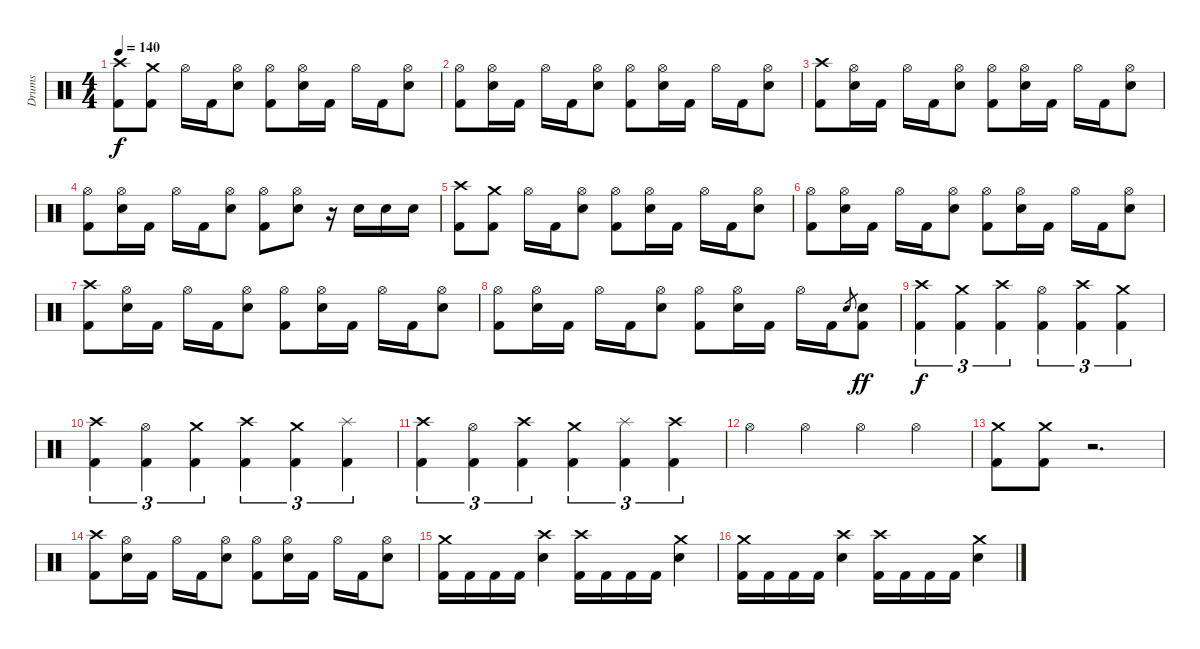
\track ("Drums" "Drums") {instrument percussion}
\staff {score}
\articulation defaults
\ts (4 4)
\tempo 140
\clef neutral
\ks c
("Kick (hit) 2" "Crash high (hit)").8{dy f} ("Kick (hit) 2" "Crash medium (hit)").8 "Hi-Hat (open)".16 "Kick (hit) 2".16 ("Snare (hit) 2" "Hi-Hat (open)").8 ("Kick (hit) 2" "Hi-Hat (open)").8 ("Hi-Hat (open)" "Snare (hit) 2").16 "Kick (hit) 2".16 "Hi-Hat (open)".16 "Kick (hit) 2".16 ("Hi-Hat (open)" "Snare (hit) 2").8 |
("Hi-Hat (open)" "Kick (hit) 2").8 ("Hi-Hat (open)" "Snare (hit) 2").16 "Kick (hit) 2".16 "Hi-Hat (open)".16 "Kick (hit) 2".16 ("Hi-Hat (open)" "Snare (hit) 2").8 ("Hi-Hat (open)" "Kick (hit) 2").8 ("Snare (hit) 2" "Hi-Hat (open)").16 "Kick (hit) 2".16 "Hi-Hat (open)".16 "Kick (hit) 2".16 ("Snare (hit) 2" "Hi-Hat (open)").8 |
("Kick (hit) 2" "Crash high (hit)").8 ("Hi-Hat (open)" "Snare (hit) 2").16 "Kick (hit) 2".16 "Hi-Hat (open)".16 "Kick (hit) 2".16 ("Hi-Hat (open)" "Snare (hit) 2").8 ("Kick (hit) 2" "Hi-Hat (open)").8 ("Snare (hit) 2" "Hi-Hat (open)").16 "Kick (hit) 2".16 "Hi-Hat (open)".16 "Kick (hit) 2".16 ("Snare (hit) 2" "Hi-Hat (open)").8 |
("Kick (hit) 2" "Hi-Hat (open)").8 ("Snare (hit) 2" "Hi-Hat (open)").16 "Kick (hit) 2".16 "Hi-Hat (open)".16 "Kick (hit) 2".16 ("Hi-Hat (open)" "Snare (hit) 2").8 ("Hi-Hat (open)" "Kick (hit) 2").8 ("Hi-Hat (open)" "Snare (hit) 2").8 r.16 "Snare (hit) 2".16 "Snare (hit) 2".16 "Snare (hit) 2".16 |
("Kick (hit) 2" "Crash high (hit)").8 ("Kick (hit) 2" "Crash medium (hit)").8 "Hi-Hat (open)".16 "Kick (hit) 2".16 ("Snare (hit) 2" "Hi-Hat (open)").8 ("Kick (hit) 2" "Hi-Hat (open)").8 ("Hi-Hat (open)" "Snare (hit) 2").16 "Kick (hit) 2".16 "Hi-Hat (open)".16 "Kick (hit) 2".16 ("Hi-Hat (open)" "Snare (hit) 2").8 |
("Hi-Hat (open)" "Kick (hit) 2").8 ("Hi-Hat (open)" "Snare (hit) 2").16 "Kick (hit) 2".16 "Hi-Hat (open)".16 "Kick (hit) 2".16 ("Hi-Hat (open)" "Snare (hit) 2").8 ("Hi-Hat (open)" "Kick (hit) 2").8 ("Snare (hit) 2" "Hi-Hat (open)").16 "Kick (hit) 2".16 "Hi-Hat (open)".16 "Kick (hit) 2".16 ("Snare (hit) 2" "Hi-Hat (open)").8 |
("Kick (hit) 2" "Crash high (hit)").8 ("Hi-Hat (open)" "Snare (hit) 2").16 "Kick (hit) 2".16 "Hi-Hat (open)".16 "Kick (hit) 2".16 ("Hi-Hat (open)" "Snare (hit) 2").8 ("Kick (hit) 2" "Hi-Hat (open)").8 ("Snare (hit) 2" "Hi-Hat (open)").16 "Kick (hit) 2".16 "Hi-Hat (open)".16 "Kick (hit) 2".16 ("Snare (hit) 2" "Hi-Hat (open)").8 |
("Hi-Hat (open)" "Kick (hit) 2").8 ("Hi-Hat (open)" "Snare (hit) 2").16 "Kick (hit) 2".16 "Hi-Hat (open)".16 "Kick (hit) 2".16 ("Snare (hit) 2" "Hi-Hat (open)").8 ("Hi-Hat (open)" "Kick (hit) 2").8 ("Hi-Hat (open)" "Snare (hit) 2").16 "Kick (hit) 2".16 "Hi-Hat (open)".16 "Kick (hit) 2".16 "Snare (hit) 2".8{gr} ("Kick (hit) 2" "Snare (hit) 2").8{dy ff} |
("Crash high (hit)" "Kick (hit) 2").4{tu (3 2) dy f} ("Crash medium (hit)" "Kick (hit) 2").4{tu (3 2)} ("Crash high (hit)" "Kick (hit) 2").4{tu (3 2)} ("Hi-Hat (open)" "Kick (hit) 2").4{tu (3 2)} ("Crash high (hit)" "Kick (hit) 2").4{tu (3 2)} ("Crash medium (hit)" "Kick (hit) 2").4{tu (3 2)} |
("Crash high (hit)" "Kick (hit) 2").4{tu (3 2)} ("Hi-Hat (open)" "Kick (hit) 2").4{tu (3 2)} ("Crash medium (hit)" "Kick (hit) 2").4{tu (3 2)} ("Crash high (hit)" "Kick (hit) 2").4{tu (3 2)} ("Crash medium (hit)" "Kick (hit) 2").4{tu (3 2)} ("Splash (hit)" "Kick (hit) 2").4{tu (3 2)} |
("Crash high (hit)" "Kick (hit) 2").4{tu (3 2)} ("Hi-Hat (open)" "Kick (hit) 2").4{tu (3 2)} ("Crash high (hit)" "Kick (hit) 2").4{tu (3 2)} ("Crash medium (hit)" "Kick (hit) 2").4{tu (3 2)} ("Splash (hit)" "Kick (hit) 2").4{tu (3 2)} ("Crash high (hit)" "Kick (hit) 2").4{tu (3 2)} |
"Hi-Hat (open)".4 "Hi-Hat (open)".4 "Hi-Hat (open)".4 "Hi-Hat (open)".4 |
("Kick (hit) 2" "Crash medium (hit)").8 ("Kick (hit) 2" "Crash medium (hit)").8 r.2{d volume 0} |
("Crash high (hit)" "Kick (hit) 2").8{volume 10} ("Hi-Hat (open)" "Snare (hit) 2").16 "Kick (hit) 2".16 "Hi-Hat (open)".16 "Kick (hit) 2".16 ("Snare (hit) 2" "Hi-Hat (open)").8 ("Kick (hit) 2" "Hi-Hat (open)").8 ("Snare (hit) 2" "Hi-Hat (open)").16 "Kick (hit) 2".16 "Hi-Hat (open)".16 "Kick (hit) 2".16 ("Snare (hit) 2" "Hi-Hat (open)").8 |
("Kick (hit) 2" "Crash medium (hit)").16 "Kick (hit) 2".16 "Kick (hit) 2".16 "Kick (hit) 2".16 ("Crash high (hit)" "Snare (hit) 2").4 ("Kick (hit) 2" "Crash high (hit)").16 "Kick (hit) 2".16 "Kick (hit) 2".16 "Kick (hit) 2".16 ("Crash medium (hit)" "Snare (hit) 2").4 |
("Kick (hit) 2" "Crash medium (hit)").16 "Kick (hit) 2".16 "Kick (hit) 2".16 "Kick (hit) 2".16 ("Crash high (hit)" "Snare (hit) 2").4 ("Kick (hit) 2" "Crash high (hit)").16 "Kick (hit) 2".16 "Kick (hit) 2".16 "Kick (hit) 2".16 ("Crash medium (hit)" "Snare (hit) 2").4
